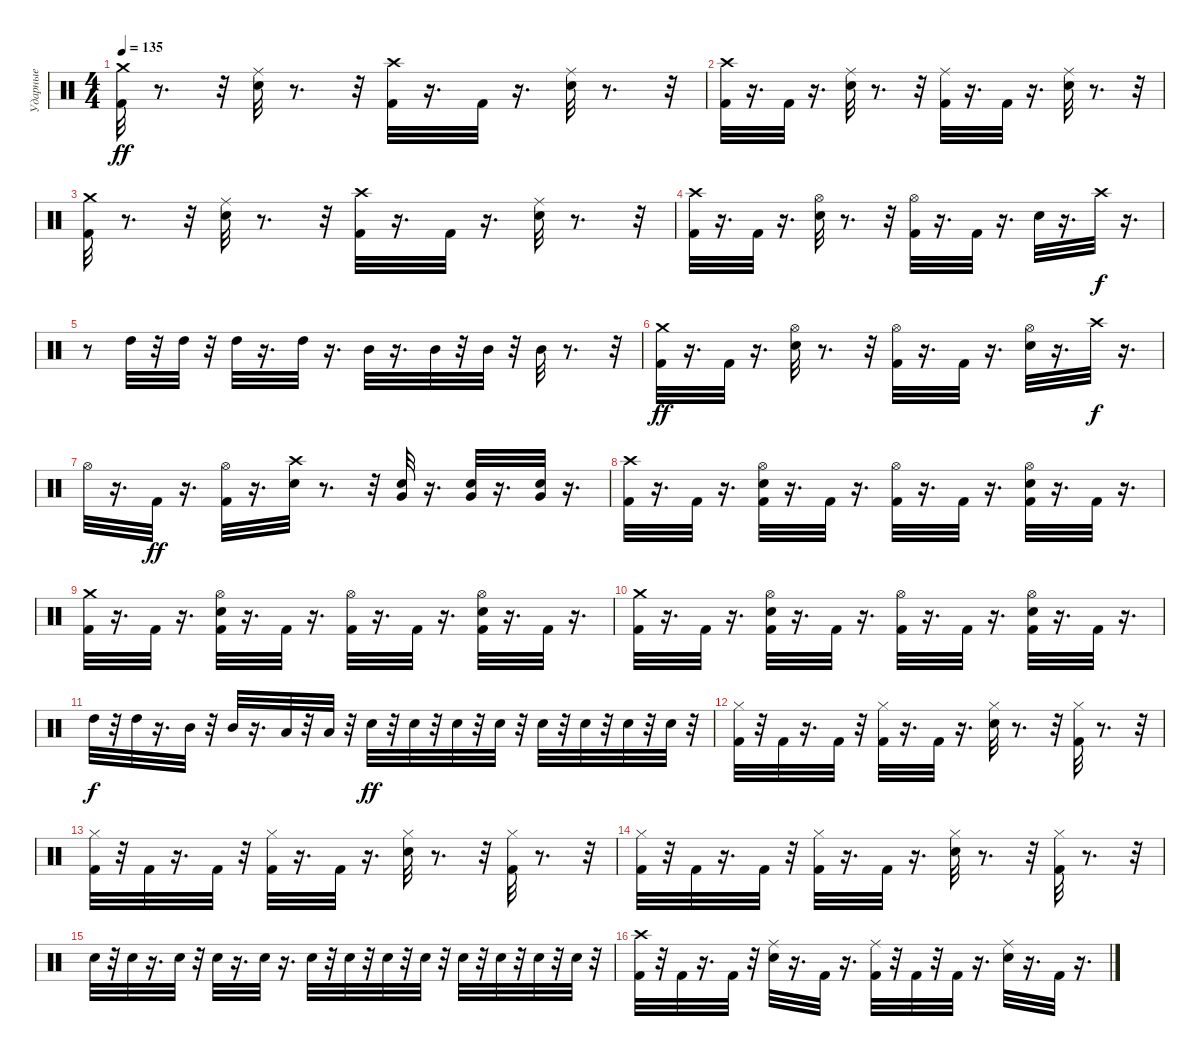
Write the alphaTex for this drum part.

\track ("Ударные" "Ударные") {instrument percussion}
\staff {score}
\articulation defaults
\ts (4 4)
\tempo 135
\clef neutral
\ks c
("Crash medium (hit)" "Kick (hit) 2").32{dy ff} r.8{d} r.32 ("Ride (middle)" "Electric Snare (hit)").32 r.8{d} r.32 ("Crash high (hit)" "Kick (hit) 2").32 r.16{d} "Kick (hit) 2".32 r.16{d} ("Ride (middle)" "Electric Snare (hit)").32 r.8{d} r.32 |
("Crash high (hit)" "Kick (hit) 2").32 r.16{d} "Kick (hit) 2".32 r.16{d} ("Ride (middle)" "Electric Snare (hit)").32 r.8{d} r.32 ("Ride (middle)" "Kick (hit) 2").32 r.16{d} "Kick (hit) 2".32 r.16{d} ("Ride (middle)" "Electric Snare (hit)").32 r.8{d} r.32 |
("Kick (hit) 2" "Crash medium (hit)").32 r.8{d} r.32 ("Electric Snare (hit)" "Ride (middle)").32 r.8{d} r.32 ("Kick (hit) 2" "Crash high (hit)").32 r.16{d} "Kick (hit) 2".32 r.16{d} ("Electric Snare (hit)" "Ride (middle)").32 r.8{d} r.32 |
("Crash high (hit)" "Kick (hit) 2").32 r.16{d} "Kick (hit) 2".32 r.16{d} ("Hi-Hat (open)" "Electric Snare (hit)").32 r.8{d} r.32 ("Hi-Hat (open)" "Kick (hit) 2").32 r.16{d} "Kick (hit) 2".32 r.16{d} "Electric Snare (hit)".32 r.16{d} "Crash high (hit)".32{dy f} r.16{d} |
r.8 "High Tom (hit)".32 r.32 "High Tom (hit)".32 r.32 "High Tom (hit)".32 r.16{d} "High Tom (hit)".32 r.16{d} "Mid Tom (hit)".32 r.16{d} "Mid Tom (hit)".32 r.32 "Mid Tom (hit)".32 r.32 "Mid Tom (hit)".32 r.8{d} r.32 |
("Crash medium (hit)" "Kick (hit) 2").32{dy ff} r.16{d} "Kick (hit) 2".32 r.16{d} ("Hi-Hat (open)" "Electric Snare (hit)").32 r.8{d} r.32 ("Hi-Hat (open)" "Kick (hit) 2").32 r.16{d} "Kick (hit) 2".32 r.16{d} ("Hi-Hat (open)" "Electric Snare (hit)").32 r.16{d} "Crash high (hit)".32{dy f} r.16{d} |
"Hi-Hat (open)".32 r.16{d} "Kick (hit) 2".32{dy ff} r.16{d} ("Hi-Hat (open)" "Kick (hit) 2").32 r.16{d} ("Crash high (hit)" "Electric Snare (hit)").32 r.8{d} r.32 ("Very Low Tom (hit)" "Electric Snare (hit)").32 r.16{d} ("Very Low Tom (hit)" "Electric Snare (hit)").32 r.16{d} ("Very Low Tom (hit)" "Electric Snare (hit)").32 r.16{d} |
("Crash high (hit)" "Kick (hit) 2").32 r.16{d} "Kick (hit) 2".32 r.16{d} ("Hi-Hat (open)" "Electric Snare (hit)" "Kick (hit) 2").32 r.16{d} "Kick (hit) 2".32 r.16{d} ("Hi-Hat (open)" "Kick (hit) 2").32 r.16{d} "Kick (hit) 2".32 r.16{d} ("Hi-Hat (open)" "Electric Snare (hit)" "Kick (hit) 2").32 r.16{d} "Kick (hit) 2".32 r.16{d} |
("Crash medium (hit)" "Kick (hit) 2").32 r.16{d} "Kick (hit) 2".32 r.16{d} ("Hi-Hat (open)" "Electric Snare (hit)" "Kick (hit) 2").32 r.16{d} "Kick (hit) 2".32 r.16{d} ("Hi-Hat (open)" "Kick (hit) 2").32 r.16{d} "Kick (hit) 2".32 r.16{d} ("Hi-Hat (open)" "Electric Snare (hit)" "Kick (hit) 2").32 r.16{d} "Kick (hit) 2".32 r.16{d} |
("Crash medium (hit)" "Kick (hit) 2").32 r.16{d} "Kick (hit) 2".32 r.16{d} ("Hi-Hat (open)" "Electric Snare (hit)" "Kick (hit) 2").32 r.16{d} "Kick (hit) 2".32 r.16{d} ("Hi-Hat (open)" "Kick (hit) 2").32 r.16{d} "Kick (hit) 2".32 r.16{d} ("Hi-Hat (open)" "Electric Snare (hit)" "Kick (hit) 2").32 r.16{d} "Kick (hit) 2".32 r.16{d} |
"High Tom (hit)".32{dy f} r.32 "High Tom (hit)".32 r.16{d} "Mid Tom (hit)".32 r.32 "Mid Tom (hit)".32 r.16{d} "Low Tom (hit)".32 r.32 "Low Tom (hit)".32 r.32 "Electric Snare (hit)".32{dy ff} r.32 "Electric Snare (hit)".32 r.32 "Electric Snare (hit)".32 r.32 "Electric Snare (hit)".32 r.32 "Electric Snare (hit)".32 r.32 "Electric Snare (hit)".32 r.32 "Electric Snare (hit)".32 r.32 "Electric Snare (hit)".32 r.32 |
("Hi-Hat (closed)" "Kick (hit) 2").32 r.32 "Kick (hit) 2".32 r.16{d} "Kick (hit) 2".32 r.32 ("Hi-Hat (closed)" "Kick (hit) 2").32 r.16{d} "Kick (hit) 2".32 r.16{d} ("Hi-Hat (closed)" "Electric Snare (hit)").32 r.8{d} r.32 ("Hi-Hat (closed)" "Kick (hit) 2").32 r.8{d} r.32 |
("Hi-Hat (closed)" "Kick (hit) 2").32 r.32 "Kick (hit) 2".32 r.16{d} "Kick (hit) 2".32 r.32 ("Hi-Hat (closed)" "Kick (hit) 2").32 r.16{d} "Kick (hit) 2".32 r.16{d} ("Hi-Hat (closed)" "Electric Snare (hit)").32 r.8{d} r.32 ("Hi-Hat (closed)" "Kick (hit) 2").32 r.8{d} r.32 |
("Hi-Hat (closed)" "Kick (hit) 2").32 r.32 "Kick (hit) 2".32 r.16{d} "Kick (hit) 2".32 r.32 ("Hi-Hat (closed)" "Kick (hit) 2").32 r.16{d} "Kick (hit) 2".32 r.16{d} ("Hi-Hat (closed)" "Electric Snare (hit)").32 r.8{d} r.32 ("Hi-Hat (closed)" "Kick (hit) 2").32 r.8{d} r.32 |
"Electric Snare (hit)".32 r.32 "Electric Snare (hit)".32 r.16{d} "Electric Snare (hit)".32 r.32 "Electric Snare (hit)".32 r.16{d} "Electric Snare (hit)".32 r.16{d} "Electric Snare (hit)".32 r.32 "Electric Snare (hit)".32 r.32 "Electric Snare (hit)".32 r.32 "Electric Snare (hit)".32 r.32 "Electric Snare (hit)".32 r.32 "Electric Snare (hit)".32 r.32 "Electric Snare (hit)".32 r.32 "Electric Snare (hit)".32 r.32 |
("Crash high (hit)" "Kick (hit) 2").32 r.32 "Kick (hit) 2".32 r.16{d} "Kick (hit) 2".32 r.32 ("Ride (middle)" "Electric Snare (hit)").32 r.16{d} "Kick (hit) 2".32 r.16{d} ("Ride (middle)" "Kick (hit) 2").32 r.32 "Kick (hit) 2".32 r.32 "Kick (hit) 2".32 r.16{d} ("Ride (middle)" "Electric Snare (hit)").32 r.16{d} "Kick (hit) 2".32 r.16{d}
